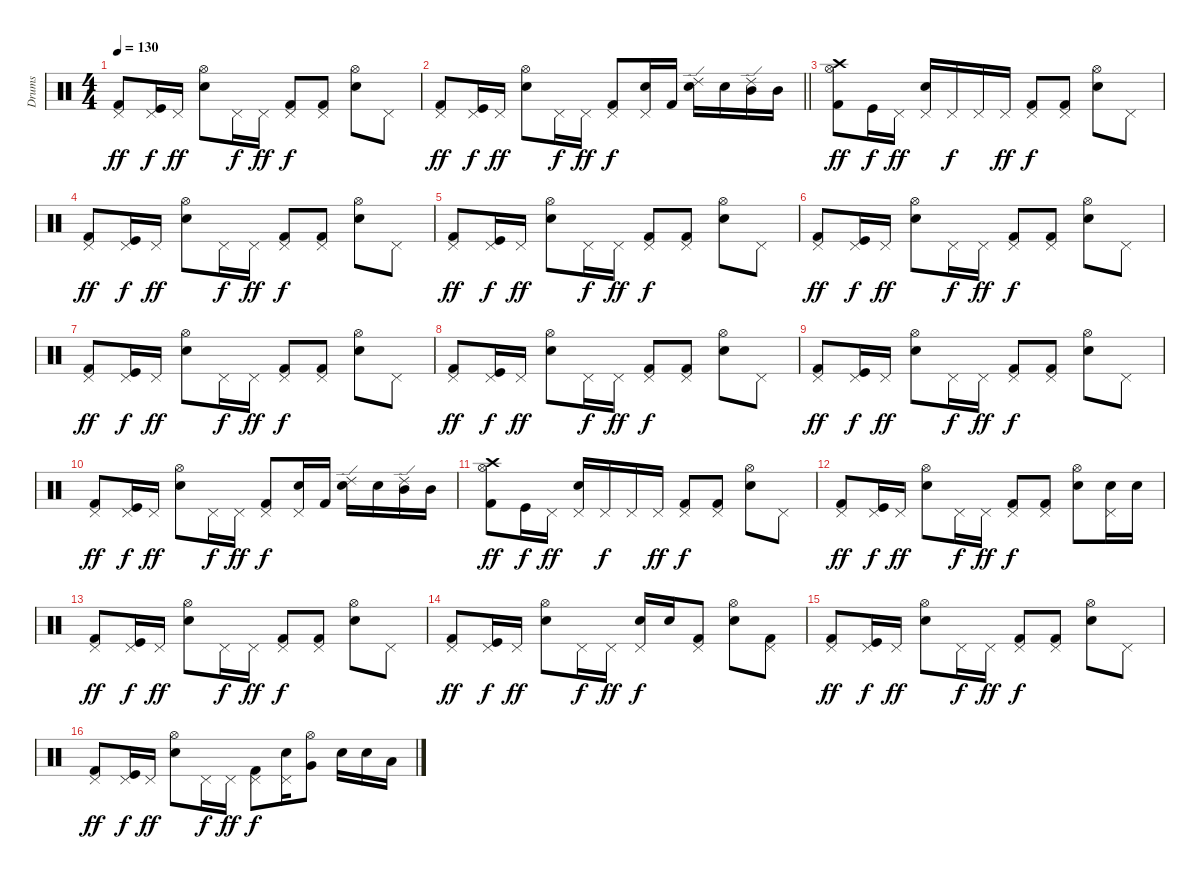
\track ("Drums" "Drums") {instrument percussion}
\staff {score}
\articulation defaults
\ts (4 4)
\tempo 130
\clef neutral
\ks c
("Pedal Hi-Hat (hit)" "Kick (hit) 2").8{dy ff} ("Pedal Hi-Hat (hit)" "Kick (hit)").16{dy f} "Pedal Hi-Hat (hit)".16{dy ff} ("Hi-Hat (open)" "Snare (hit) 2").8 "Pedal Hi-Hat (hit)".16{dy f} "Pedal Hi-Hat (hit)".16{dy ff} ("Pedal Hi-Hat (hit)" "Kick (hit) 2").8{dy f} ("Pedal Hi-Hat (hit)" "Kick (hit) 2").8 ("Hi-Hat (open)" "Snare (hit) 2").8 "Pedal Hi-Hat (hit)".8 |
\barLineRight lightlight
("Pedal Hi-Hat (hit)" "Kick (hit) 2").8{dy ff} ("Pedal Hi-Hat (hit)" "Kick (hit)").16{dy f} "Pedal Hi-Hat (hit)".16{dy ff} ("Hi-Hat (open)" "Snare (hit) 2").8 "Pedal Hi-Hat (hit)".16{dy f} "Pedal Hi-Hat (hit)".16{dy ff} ("Pedal Hi-Hat (hit)" "Kick (hit) 2").8{dy f} ("Pedal Hi-Hat (hit)" "Snare (hit) 2").16 "Kick (hit) 2".16 ("Ride (edge) 2" "Snare (hit) 2").16 "Snare (hit) 2".16 ("Ride (edge) 2" "Mid Tom (hit)").16 "Mid Tom (hit)".16 |
("Crash high (hit)" "Kick (hit) 2" "Hi-Hat (open)").8{dy ff} "Kick (hit)".16{dy f} "Pedal Hi-Hat (hit)".16{dy ff} ("Pedal Hi-Hat (hit)" "Snare (hit) 2").16 "Pedal Hi-Hat (hit)".16{dy f} "Pedal Hi-Hat (hit)".16 "Pedal Hi-Hat (hit)".16{dy ff} ("Pedal Hi-Hat (hit)" "Kick (hit) 2").8{dy f} ("Pedal Hi-Hat (hit)" "Kick (hit) 2").8 ("Hi-Hat (open)" "Snare (hit) 2").8 "Pedal Hi-Hat (hit)".8 |
("Pedal Hi-Hat (hit)" "Kick (hit) 2").8{dy ff} ("Pedal Hi-Hat (hit)" "Kick (hit)").16{dy f} "Pedal Hi-Hat (hit)".16{dy ff} ("Hi-Hat (open)" "Snare (hit) 2").8 "Pedal Hi-Hat (hit)".16{dy f} "Pedal Hi-Hat (hit)".16{dy ff} ("Pedal Hi-Hat (hit)" "Kick (hit) 2").8{dy f} ("Pedal Hi-Hat (hit)" "Kick (hit) 2").8 ("Hi-Hat (open)" "Snare (hit) 2").8 "Pedal Hi-Hat (hit)".8 |
("Pedal Hi-Hat (hit)" "Kick (hit) 2").8{dy ff} ("Pedal Hi-Hat (hit)" "Kick (hit)").16{dy f} "Pedal Hi-Hat (hit)".16{dy ff} ("Hi-Hat (open)" "Snare (hit) 2").8 "Pedal Hi-Hat (hit)".16{dy f} "Pedal Hi-Hat (hit)".16{dy ff} ("Pedal Hi-Hat (hit)" "Kick (hit) 2").8{dy f} ("Pedal Hi-Hat (hit)" "Kick (hit) 2").8 ("Hi-Hat (open)" "Snare (hit) 2").8 "Pedal Hi-Hat (hit)".8 |
("Pedal Hi-Hat (hit)" "Kick (hit) 2").8{dy ff} ("Pedal Hi-Hat (hit)" "Kick (hit)").16{dy f} "Pedal Hi-Hat (hit)".16{dy ff} ("Hi-Hat (open)" "Snare (hit) 2").8 "Pedal Hi-Hat (hit)".16{dy f} "Pedal Hi-Hat (hit)".16{dy ff} ("Pedal Hi-Hat (hit)" "Kick (hit) 2").8{dy f} ("Pedal Hi-Hat (hit)" "Kick (hit) 2").8 ("Hi-Hat (open)" "Snare (hit) 2").8 "Pedal Hi-Hat (hit)".8 |
("Pedal Hi-Hat (hit)" "Kick (hit) 2").8{dy ff} ("Pedal Hi-Hat (hit)" "Kick (hit)").16{dy f} "Pedal Hi-Hat (hit)".16{dy ff} ("Hi-Hat (open)" "Snare (hit) 2").8 "Pedal Hi-Hat (hit)".16{dy f} "Pedal Hi-Hat (hit)".16{dy ff} ("Pedal Hi-Hat (hit)" "Kick (hit) 2").8{dy f} ("Pedal Hi-Hat (hit)" "Kick (hit) 2").8 ("Hi-Hat (open)" "Snare (hit) 2").8 "Pedal Hi-Hat (hit)".8 |
("Pedal Hi-Hat (hit)" "Kick (hit) 2").8{dy ff} ("Pedal Hi-Hat (hit)" "Kick (hit)").16{dy f} "Pedal Hi-Hat (hit)".16{dy ff} ("Hi-Hat (open)" "Snare (hit) 2").8 "Pedal Hi-Hat (hit)".16{dy f} "Pedal Hi-Hat (hit)".16{dy ff} ("Pedal Hi-Hat (hit)" "Kick (hit) 2").8{dy f} ("Pedal Hi-Hat (hit)" "Kick (hit) 2").8 ("Hi-Hat (open)" "Snare (hit) 2").8 "Pedal Hi-Hat (hit)".8 |
("Pedal Hi-Hat (hit)" "Kick (hit) 2").8{dy ff} ("Pedal Hi-Hat (hit)" "Kick (hit)").16{dy f} "Pedal Hi-Hat (hit)".16{dy ff} ("Hi-Hat (open)" "Snare (hit) 2").8 "Pedal Hi-Hat (hit)".16{dy f} "Pedal Hi-Hat (hit)".16{dy ff} ("Pedal Hi-Hat (hit)" "Kick (hit) 2").8{dy f} ("Pedal Hi-Hat (hit)" "Kick (hit) 2").8 ("Hi-Hat (open)" "Snare (hit) 2").8 "Pedal Hi-Hat (hit)".8 |
("Pedal Hi-Hat (hit)" "Kick (hit) 2").8{dy ff} ("Pedal Hi-Hat (hit)" "Kick (hit)").16{dy f} "Pedal Hi-Hat (hit)".16{dy ff} ("Hi-Hat (open)" "Snare (hit) 2").8 "Pedal Hi-Hat (hit)".16{dy f} "Pedal Hi-Hat (hit)".16{dy ff} ("Pedal Hi-Hat (hit)" "Kick (hit) 2").8{dy f} ("Pedal Hi-Hat (hit)" "Snare (hit) 2").16 "Kick (hit) 2".16 ("Ride (edge) 2" "Snare (hit) 2").16 "Snare (hit) 2".16 ("Ride (edge) 2" "Mid Tom (hit)").16 "Mid Tom (hit)".16 |
("Crash high (hit)" "Kick (hit) 2" "Hi-Hat (open)").8{dy ff} "Kick (hit)".16{dy f} "Pedal Hi-Hat (hit)".16{dy ff} ("Pedal Hi-Hat (hit)" "Snare (hit) 2").16 "Pedal Hi-Hat (hit)".16{dy f} "Pedal Hi-Hat (hit)".16 "Pedal Hi-Hat (hit)".16{dy ff} ("Pedal Hi-Hat (hit)" "Kick (hit) 2").8{dy f} ("Pedal Hi-Hat (hit)" "Kick (hit) 2").8 ("Hi-Hat (open)" "Snare (hit) 2").8 "Pedal Hi-Hat (hit)".8 |
("Pedal Hi-Hat (hit)" "Kick (hit) 2").8{dy ff} ("Pedal Hi-Hat (hit)" "Kick (hit)").16{dy f} "Pedal Hi-Hat (hit)".16{dy ff} ("Hi-Hat (open)" "Snare (hit) 2").8 "Pedal Hi-Hat (hit)".16{dy f} "Pedal Hi-Hat (hit)".16{dy ff} ("Pedal Hi-Hat (hit)" "Kick (hit) 2").8{dy f} ("Pedal Hi-Hat (hit)" "Kick (hit) 2").8 ("Hi-Hat (open)" "Snare (hit) 2").8 ("Pedal Hi-Hat (hit)" "Snare (hit) 2").16 "Snare (hit) 2".16 |
("Pedal Hi-Hat (hit)" "Kick (hit) 2").8{dy ff} ("Pedal Hi-Hat (hit)" "Kick (hit)").16{dy f} "Pedal Hi-Hat (hit)".16{dy ff} ("Hi-Hat (open)" "Snare (hit) 2").8 "Pedal Hi-Hat (hit)".16{dy f} "Pedal Hi-Hat (hit)".16{dy ff} ("Pedal Hi-Hat (hit)" "Kick (hit) 2").8{dy f} ("Pedal Hi-Hat (hit)" "Kick (hit) 2").8 ("Hi-Hat (open)" "Snare (hit) 2").8 "Pedal Hi-Hat (hit)".8 |
("Pedal Hi-Hat (hit)" "Kick (hit) 2").8{dy ff} ("Pedal Hi-Hat (hit)" "Kick (hit)").16{dy f} "Pedal Hi-Hat (hit)".16{dy ff} ("Hi-Hat (open)" "Snare (hit) 2").8 "Pedal Hi-Hat (hit)".16{dy f} "Pedal Hi-Hat (hit)".16{dy ff} ("Pedal Hi-Hat (hit)" "Snare (hit) 2").16{dy f} "Snare (hit) 2".16 ("Pedal Hi-Hat (hit)" "Kick (hit) 2").8 ("Hi-Hat (open)" "Snare (hit) 2").8 ("Pedal Hi-Hat (hit)" "Kick (hit) 2").8 |
("Pedal Hi-Hat (hit)" "Kick (hit) 2").8{dy ff} ("Pedal Hi-Hat (hit)" "Kick (hit)").16{dy f} "Pedal Hi-Hat (hit)".16{dy ff} ("Hi-Hat (open)" "Snare (hit) 2").8 "Pedal Hi-Hat (hit)".16{dy f} "Pedal Hi-Hat (hit)".16{dy ff} ("Pedal Hi-Hat (hit)" "Kick (hit) 2").8{dy f} ("Pedal Hi-Hat (hit)" "Kick (hit) 2").8 ("Hi-Hat (open)" "Snare (hit) 2").8 "Pedal Hi-Hat (hit)".8 |
("Pedal Hi-Hat (hit)" "Kick (hit) 2").8{dy ff} ("Pedal Hi-Hat (hit)" "Kick (hit)").16{dy f} "Pedal Hi-Hat (hit)".16{dy ff} ("Hi-Hat (open)" "Snare (hit) 2").8 "Pedal Hi-Hat (hit)".16{dy f} "Pedal Hi-Hat (hit)".16{dy ff} ("Pedal Hi-Hat (hit)" "Kick (hit) 2").8{dy f} ("Pedal Hi-Hat (hit)" "Snare (hit) 2").16 ("Hi-Hat (open)" "Very Low Tom (hit)").8 "Snare (hit) 2".16 "Snare (hit) 2".16 "Low Floor Tom (hit)".16
